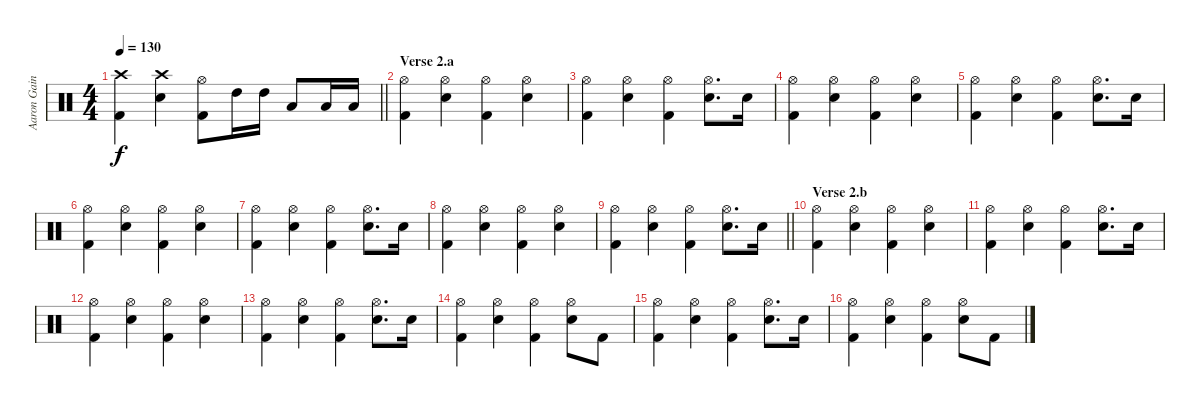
\track ("Aaron Gainer - Drums" "Aaron Gain") {instrument percussion}
\staff {score}
\articulation defaults
\ts (4 4)
\tempo 130
\clef neutral
\barLineRight lightlight
\ks c
("Crash high (hit)" "Kick (hit) 2").4{dy f} ("Crash high (hit)" "Snare (hit) 2").4 ("Hi-Hat (open)" "Kick (hit) 2").8 "High Tom (hit)".16 "High Tom (hit)".16 "Low Tom (hit)".8 "Low Tom (hit)".16 "Low Tom (hit)".16 |
\section ("" "Verse 2.a")
("Hi-Hat (open)" "Kick (hit) 2").4 ("Hi-Hat (open)" "Snare (hit) 2").4 ("Hi-Hat (open)" "Kick (hit) 2").4 ("Hi-Hat (open)" "Snare (hit) 2").4 |
("Hi-Hat (open)" "Kick (hit) 2").4 ("Hi-Hat (open)" "Snare (hit) 2").4 ("Hi-Hat (open)" "Kick (hit) 2").4 ("Hi-Hat (open)" "Snare (hit) 2").8{d} "Snare (hit) 2".16 |
("Hi-Hat (open)" "Kick (hit) 2").4 ("Hi-Hat (open)" "Snare (hit) 2").4 ("Hi-Hat (open)" "Kick (hit) 2").4 ("Hi-Hat (open)" "Snare (hit) 2").4 |
("Hi-Hat (open)" "Kick (hit) 2").4 ("Hi-Hat (open)" "Snare (hit) 2").4 ("Hi-Hat (open)" "Kick (hit) 2").4 ("Hi-Hat (open)" "Snare (hit) 2").8{d} "Snare (hit) 2".16 |
("Hi-Hat (open)" "Kick (hit) 2").4 ("Hi-Hat (open)" "Snare (hit) 2").4 ("Hi-Hat (open)" "Kick (hit) 2").4 ("Hi-Hat (open)" "Snare (hit) 2").4 |
("Hi-Hat (open)" "Kick (hit) 2").4 ("Hi-Hat (open)" "Snare (hit) 2").4 ("Hi-Hat (open)" "Kick (hit) 2").4 ("Hi-Hat (open)" "Snare (hit) 2").8{d} "Snare (hit) 2".16 |
("Hi-Hat (open)" "Kick (hit) 2").4 ("Hi-Hat (open)" "Snare (hit) 2").4 ("Hi-Hat (open)" "Kick (hit) 2").4 ("Hi-Hat (open)" "Snare (hit) 2").4 |
\barLineRight lightlight
("Hi-Hat (open)" "Kick (hit) 2").4 ("Hi-Hat (open)" "Snare (hit) 2").4 ("Hi-Hat (open)" "Kick (hit) 2").4 ("Hi-Hat (open)" "Snare (hit) 2").8{d} "Snare (hit) 2".16 |
\section ("" "Verse 2.b")
("Hi-Hat (open)" "Kick (hit) 2").4 ("Hi-Hat (open)" "Snare (hit) 2").4 ("Hi-Hat (open)" "Kick (hit) 2").4 ("Hi-Hat (open)" "Snare (hit) 2").4 |
("Hi-Hat (open)" "Kick (hit) 2").4 ("Hi-Hat (open)" "Snare (hit) 2").4 ("Hi-Hat (open)" "Kick (hit) 2").4 ("Hi-Hat (open)" "Snare (hit) 2").8{d} "Snare (hit) 2".16 |
("Hi-Hat (open)" "Kick (hit) 2").4 ("Hi-Hat (open)" "Snare (hit) 2").4 ("Hi-Hat (open)" "Kick (hit) 2").4 ("Hi-Hat (open)" "Snare (hit) 2").4 |
("Hi-Hat (open)" "Kick (hit) 2").4 ("Hi-Hat (open)" "Snare (hit) 2").4 ("Hi-Hat (open)" "Kick (hit) 2").4 ("Hi-Hat (open)" "Snare (hit) 2").8{d} "Snare (hit) 2".16 |
("Hi-Hat (open)" "Kick (hit) 2").4 ("Hi-Hat (open)" "Snare (hit) 2").4 ("Hi-Hat (open)" "Kick (hit) 2").4 ("Hi-Hat (open)" "Snare (hit) 2").8 "Kick (hit) 2".8 |
("Hi-Hat (open)" "Kick (hit) 2").4 ("Hi-Hat (open)" "Snare (hit) 2").4 ("Hi-Hat (open)" "Kick (hit) 2").4 ("Hi-Hat (open)" "Snare (hit) 2").8{d} "Snare (hit) 2".16 |
("Hi-Hat (open)" "Kick (hit) 2").4 ("Hi-Hat (open)" "Snare (hit) 2").4 ("Hi-Hat (open)" "Kick (hit) 2").4 ("Hi-Hat (open)" "Snare (hit) 2").8 "Kick (hit) 2".8
